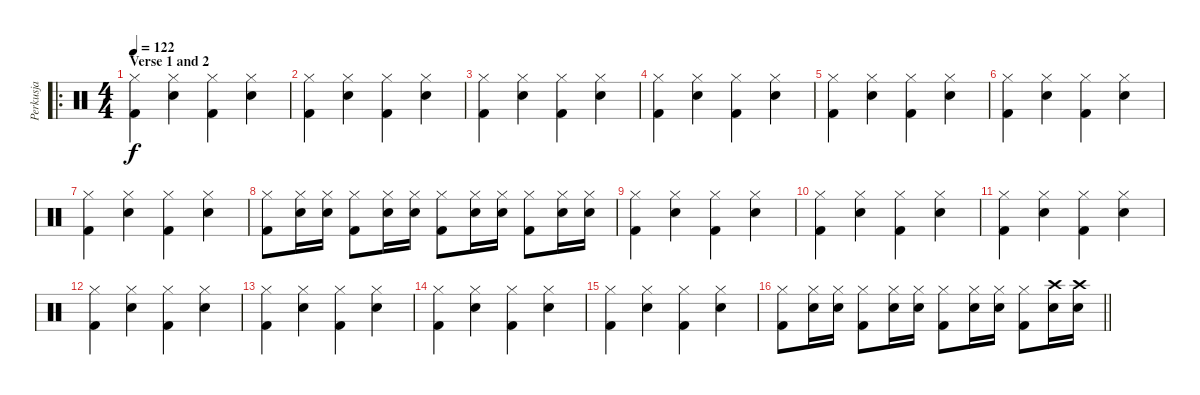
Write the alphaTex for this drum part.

\track ("Perkusja" "Perkusja") {instrument percussion}
\staff {score}
\articulation defaults
\ro
\ts (4 4)
\section ("" "Verse 1 and 2")
\tempo 122
\clef neutral
\ks c
("Hi-Hat (closed)" "Kick (hit) 2").4{dy f} ("Hi-Hat (closed)" "Electric Snare (hit)").4 ("Hi-Hat (closed)" "Kick (hit) 2").4 ("Hi-Hat (closed)" "Electric Snare (hit)").4 |
("Hi-Hat (closed)" "Kick (hit) 2").4 ("Hi-Hat (closed)" "Electric Snare (hit)").4 ("Hi-Hat (closed)" "Kick (hit) 2").4 ("Hi-Hat (closed)" "Electric Snare (hit)").4 |
("Hi-Hat (closed)" "Kick (hit) 2").4 ("Hi-Hat (closed)" "Electric Snare (hit)").4 ("Hi-Hat (closed)" "Kick (hit) 2").4 ("Hi-Hat (closed)" "Electric Snare (hit)").4 |
("Hi-Hat (closed)" "Kick (hit) 2").4 ("Hi-Hat (closed)" "Electric Snare (hit)").4 ("Hi-Hat (closed)" "Kick (hit) 2").4 ("Hi-Hat (closed)" "Electric Snare (hit)").4 |
("Hi-Hat (closed)" "Kick (hit) 2").4 ("Hi-Hat (closed)" "Electric Snare (hit)").4 ("Hi-Hat (closed)" "Kick (hit) 2").4 ("Hi-Hat (closed)" "Electric Snare (hit)").4 |
("Hi-Hat (closed)" "Kick (hit) 2").4 ("Hi-Hat (closed)" "Electric Snare (hit)").4 ("Hi-Hat (closed)" "Kick (hit) 2").4 ("Hi-Hat (closed)" "Electric Snare (hit)").4 |
("Hi-Hat (closed)" "Kick (hit) 2").4 ("Hi-Hat (closed)" "Electric Snare (hit)").4 ("Hi-Hat (closed)" "Kick (hit) 2").4 ("Hi-Hat (closed)" "Electric Snare (hit)").4 |
("Hi-Hat (closed)" "Kick (hit) 2").8 ("Hi-Hat (closed)" "Electric Snare (hit)").16 ("Hi-Hat (closed)" "Electric Snare (hit)").16 ("Hi-Hat (closed)" "Kick (hit) 2").8 ("Hi-Hat (closed)" "Electric Snare (hit)").16 ("Hi-Hat (closed)" "Electric Snare (hit)").16 ("Hi-Hat (closed)" "Kick (hit) 2").8 ("Hi-Hat (closed)" "Electric Snare (hit)").16 ("Hi-Hat (closed)" "Electric Snare (hit)").16 ("Hi-Hat (closed)" "Kick (hit) 2").8 ("Hi-Hat (closed)" "Electric Snare (hit)").16 ("Hi-Hat (closed)" "Electric Snare (hit)").16 |
("Hi-Hat (closed)" "Kick (hit) 2").4 ("Hi-Hat (closed)" "Electric Snare (hit)").4 ("Hi-Hat (closed)" "Kick (hit) 2").4 ("Hi-Hat (closed)" "Electric Snare (hit)").4 |
("Hi-Hat (closed)" "Kick (hit) 2").4 ("Hi-Hat (closed)" "Electric Snare (hit)").4 ("Hi-Hat (closed)" "Kick (hit) 2").4 ("Hi-Hat (closed)" "Electric Snare (hit)").4 |
("Hi-Hat (closed)" "Kick (hit) 2").4 ("Hi-Hat (closed)" "Electric Snare (hit)").4 ("Hi-Hat (closed)" "Kick (hit) 2").4 ("Hi-Hat (closed)" "Electric Snare (hit)").4 |
("Hi-Hat (closed)" "Kick (hit) 2").4 ("Hi-Hat (closed)" "Electric Snare (hit)").4 ("Hi-Hat (closed)" "Kick (hit) 2").4 ("Hi-Hat (closed)" "Electric Snare (hit)").4 |
("Hi-Hat (closed)" "Kick (hit) 2").4 ("Hi-Hat (closed)" "Electric Snare (hit)").4 ("Hi-Hat (closed)" "Kick (hit) 2").4 ("Hi-Hat (closed)" "Electric Snare (hit)").4 |
("Hi-Hat (closed)" "Kick (hit) 2").4 ("Hi-Hat (closed)" "Electric Snare (hit)").4 ("Hi-Hat (closed)" "Kick (hit) 2").4 ("Hi-Hat (closed)" "Electric Snare (hit)").4 |
("Hi-Hat (closed)" "Kick (hit) 2").4 ("Hi-Hat (closed)" "Electric Snare (hit)").4 ("Hi-Hat (closed)" "Kick (hit) 2").4 ("Hi-Hat (closed)" "Electric Snare (hit)").4 |
\barLineRight lightlight
("Hi-Hat (closed)" "Kick (hit) 2").8 ("Hi-Hat (closed)" "Electric Snare (hit)").16 ("Hi-Hat (closed)" "Electric Snare (hit)").16 ("Hi-Hat (closed)" "Kick (hit) 2").8 ("Hi-Hat (closed)" "Electric Snare (hit)").16 ("Hi-Hat (closed)" "Electric Snare (hit)").16 ("Hi-Hat (closed)" "Kick (hit) 2").8 ("Hi-Hat (closed)" "Electric Snare (hit)").16 ("Hi-Hat (closed)" "Electric Snare (hit)").16 ("Hi-Hat (closed)" "Kick (hit) 2").8 ("Crash high (hit)" "Electric Snare (hit)").16 ("Crash high (hit)" "Electric Snare (hit)").16
